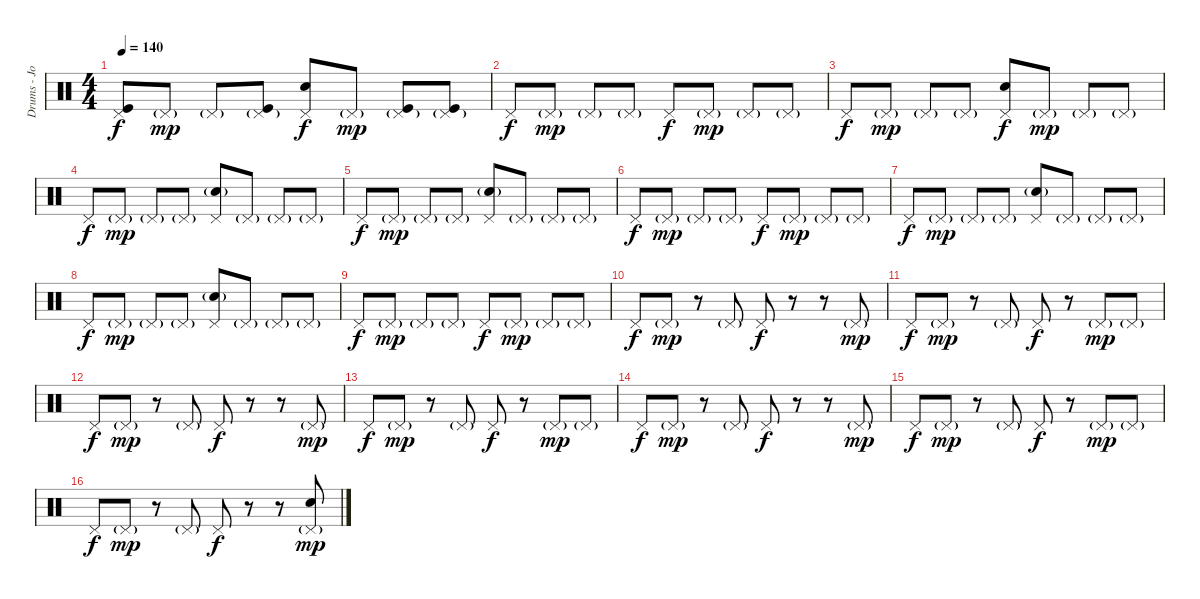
\track ("Drums - Josh Klinghoffer" "Drums - Jo") {instrument percussion}
\staff {score}
\articulation defaults
\ts (4 4)
\tempo 140
\clef neutral
\ks c
("Pedal Hi-Hat (hit)" "Kick (hit)").8{dy f} "Pedal Hi-Hat (hit)"{g}.8{dy mp} "Pedal Hi-Hat (hit)"{g}.8 ("Pedal Hi-Hat (hit)"{g} "Kick (hit)").8 ("Pedal Hi-Hat (hit)" "Electric Snare (hit)").8{dy f} "Pedal Hi-Hat (hit)"{g}.8{dy mp} ("Pedal Hi-Hat (hit)"{g} "Kick (hit)").8 ("Pedal Hi-Hat (hit)"{g} "Kick (hit)").8 |
"Pedal Hi-Hat (hit)".8{dy f} "Pedal Hi-Hat (hit)"{g}.8{dy mp} "Pedal Hi-Hat (hit)"{g}.8 "Pedal Hi-Hat (hit)"{g}.8 "Pedal Hi-Hat (hit)".8{dy f} "Pedal Hi-Hat (hit)"{g}.8{dy mp} "Pedal Hi-Hat (hit)"{g}.8 "Pedal Hi-Hat (hit)"{g}.8 |
"Pedal Hi-Hat (hit)".8{dy f} "Pedal Hi-Hat (hit)"{g}.8{dy mp} "Pedal Hi-Hat (hit)"{g}.8 "Pedal Hi-Hat (hit)"{g}.8 ("Pedal Hi-Hat (hit)" "Electric Snare (hit)").8{dy f} "Pedal Hi-Hat (hit)"{g}.8{dy mp} "Pedal Hi-Hat (hit)"{g}.8 "Pedal Hi-Hat (hit)"{g}.8 |
"Pedal Hi-Hat (hit)".8{dy f} "Pedal Hi-Hat (hit)"{g}.8{dy mp} "Pedal Hi-Hat (hit)"{g}.8 "Pedal Hi-Hat (hit)"{g}.8 ("Pedal Hi-Hat (hit)" "Electric Snare (hit)"{g}).8 "Pedal Hi-Hat (hit)"{g}.8 "Pedal Hi-Hat (hit)"{g}.8 "Pedal Hi-Hat (hit)"{g}.8 |
"Pedal Hi-Hat (hit)".8{dy f} "Pedal Hi-Hat (hit)"{g}.8{dy mp} "Pedal Hi-Hat (hit)"{g}.8 "Pedal Hi-Hat (hit)"{g}.8 ("Pedal Hi-Hat (hit)" "Electric Snare (hit)"{g}).8 "Pedal Hi-Hat (hit)"{g}.8 "Pedal Hi-Hat (hit)"{g}.8 "Pedal Hi-Hat (hit)"{g}.8 |
"Pedal Hi-Hat (hit)".8{dy f} "Pedal Hi-Hat (hit)"{g}.8{dy mp} "Pedal Hi-Hat (hit)"{g}.8 "Pedal Hi-Hat (hit)"{g}.8 "Pedal Hi-Hat (hit)".8{dy f} "Pedal Hi-Hat (hit)"{g}.8{dy mp} "Pedal Hi-Hat (hit)"{g}.8 "Pedal Hi-Hat (hit)"{g}.8 |
"Pedal Hi-Hat (hit)".8{dy f} "Pedal Hi-Hat (hit)"{g}.8{dy mp} "Pedal Hi-Hat (hit)"{g}.8 "Pedal Hi-Hat (hit)"{g}.8 ("Pedal Hi-Hat (hit)" "Electric Snare (hit)"{g}).8 "Pedal Hi-Hat (hit)"{g}.8 "Pedal Hi-Hat (hit)"{g}.8 "Pedal Hi-Hat (hit)"{g}.8 |
"Pedal Hi-Hat (hit)".8{dy f} "Pedal Hi-Hat (hit)"{g}.8{dy mp} "Pedal Hi-Hat (hit)"{g}.8 "Pedal Hi-Hat (hit)"{g}.8 ("Pedal Hi-Hat (hit)" "Electric Snare (hit)"{g}).8 "Pedal Hi-Hat (hit)"{g}.8 "Pedal Hi-Hat (hit)"{g}.8 "Pedal Hi-Hat (hit)"{g}.8 |
"Pedal Hi-Hat (hit)".8{dy f} "Pedal Hi-Hat (hit)"{g}.8{dy mp} "Pedal Hi-Hat (hit)"{g}.8 "Pedal Hi-Hat (hit)"{g}.8 "Pedal Hi-Hat (hit)".8{dy f} "Pedal Hi-Hat (hit)"{g}.8{dy mp} "Pedal Hi-Hat (hit)"{g}.8 "Pedal Hi-Hat (hit)"{g}.8 |
"Pedal Hi-Hat (hit)".8{dy f} "Pedal Hi-Hat (hit)"{g}.8{dy mp} r.8 "Pedal Hi-Hat (hit)"{g}.8 "Pedal Hi-Hat (hit)".8{dy f} r.8 r.8 "Pedal Hi-Hat (hit)"{g}.8{dy mp} |
"Pedal Hi-Hat (hit)".8{dy f} "Pedal Hi-Hat (hit)"{g}.8{dy mp} r.8 "Pedal Hi-Hat (hit)"{g}.8 "Pedal Hi-Hat (hit)".8{dy f} r.8 "Pedal Hi-Hat (hit)"{g}.8{dy mp} "Pedal Hi-Hat (hit)"{g}.8 |
"Pedal Hi-Hat (hit)".8{dy f} "Pedal Hi-Hat (hit)"{g}.8{dy mp} r.8 "Pedal Hi-Hat (hit)"{g}.8 "Pedal Hi-Hat (hit)".8{dy f} r.8 r.8 "Pedal Hi-Hat (hit)"{g}.8{dy mp} |
"Pedal Hi-Hat (hit)".8{dy f} "Pedal Hi-Hat (hit)"{g}.8{dy mp} r.8 "Pedal Hi-Hat (hit)"{g}.8 "Pedal Hi-Hat (hit)".8{dy f} r.8 "Pedal Hi-Hat (hit)"{g}.8{dy mp} "Pedal Hi-Hat (hit)"{g}.8 |
"Pedal Hi-Hat (hit)".8{dy f} "Pedal Hi-Hat (hit)"{g}.8{dy mp} r.8 "Pedal Hi-Hat (hit)"{g}.8 "Pedal Hi-Hat (hit)".8{dy f} r.8 r.8 "Pedal Hi-Hat (hit)"{g}.8{dy mp} |
"Pedal Hi-Hat (hit)".8{dy f} "Pedal Hi-Hat (hit)"{g}.8{dy mp} r.8 "Pedal Hi-Hat (hit)"{g}.8 "Pedal Hi-Hat (hit)".8{dy f} r.8 "Pedal Hi-Hat (hit)"{g}.8{dy mp} "Pedal Hi-Hat (hit)"{g}.8 |
"Pedal Hi-Hat (hit)".8{dy f} "Pedal Hi-Hat (hit)"{g}.8{dy mp} r.8 "Pedal Hi-Hat (hit)"{g}.8 "Pedal Hi-Hat (hit)".8{dy f} r.8 r.8 ("Pedal Hi-Hat (hit)"{g} "Electric Snare (hit)").8{dy mp}
